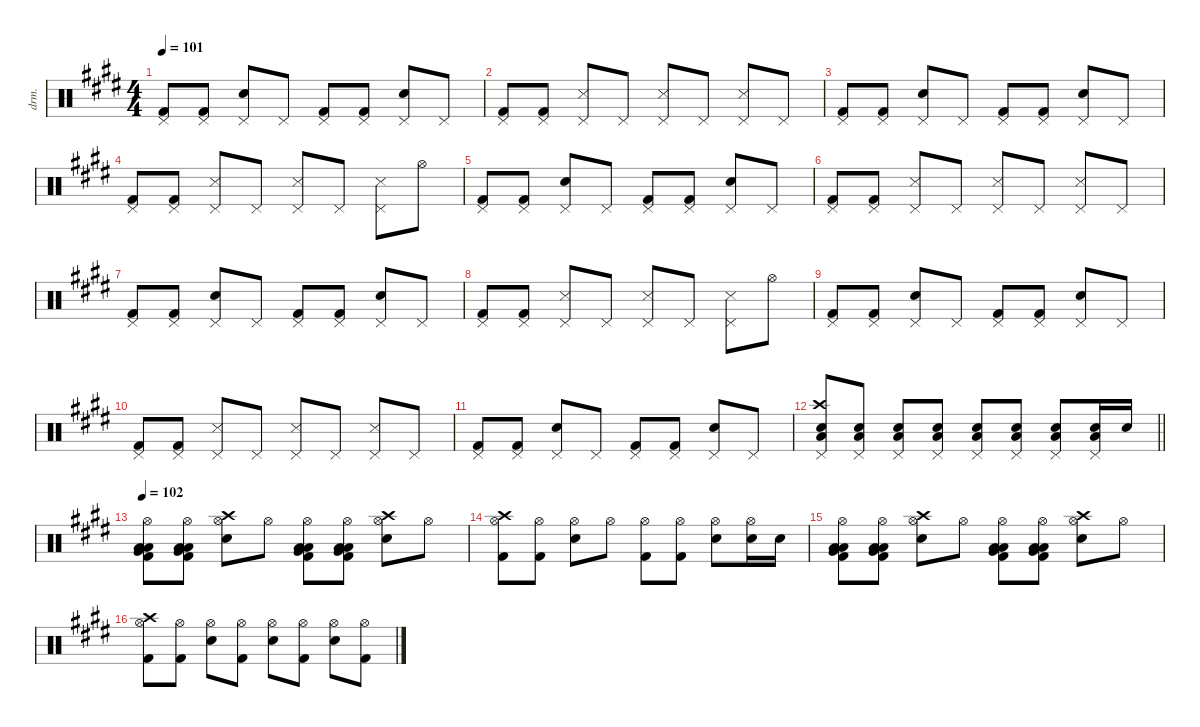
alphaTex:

\defaultSystemsLayout 4
\hideDynamics
\bracketExtendMode nobrackets
\otherSystemsTrackNameOrientation horizontal
\track ("Percussion" "drm.") {instrument percussion}
\staff {score}
\articulation defaults
\ts (4 4)
\tempo 101
\clef neutral
\ks c#minor
("Kick (hit) 2"{acc forcenatural} "Pedal Hi-Hat (hit)"{acc forcenatural}).8{dy f beam Up} ("Kick (hit) 2"{acc forcenatural} "Pedal Hi-Hat (hit)"{acc forcenatural}).8{beam Up} ("Snare (hit) 2"{acc forcenatural} "Pedal Hi-Hat (hit)"{acc forcenatural}).8{beam Up} "Pedal Hi-Hat (hit)"{acc forcenatural}.8{beam Up} ("Kick (hit) 2"{acc forcenatural} "Pedal Hi-Hat (hit)"{acc forcenatural}).8{beam Up} ("Kick (hit) 2"{acc forcenatural} "Pedal Hi-Hat (hit)"{acc forcenatural}).8{beam Up} ("Snare (hit) 2"{acc forcenatural} "Pedal Hi-Hat (hit)"{acc forcenatural}).8{beam Up} "Pedal Hi-Hat (hit)"{acc forcenatural}.8{beam Up} |
("Kick (hit) 2"{acc forcenatural} "Pedal Hi-Hat (hit)"{acc forcenatural}).8{beam Up} ("Kick (hit) 2"{acc forcenatural} "Pedal Hi-Hat (hit)"{acc forcenatural}).8{beam Up} ("Metronome (hit)"{acc forcenatural} "Pedal Hi-Hat (hit)"{acc forcenatural}).8{beam Up} "Pedal Hi-Hat (hit)"{acc forcenatural}.8{beam Up} ("Metronome (hit)"{acc forcenatural} "Pedal Hi-Hat (hit)"{acc forcenatural}).8{beam Up} "Pedal Hi-Hat (hit)"{acc forcenatural}.8{beam Up} ("Metronome (hit)"{acc forcenatural} "Pedal Hi-Hat (hit)"{acc forcenatural}).8{beam Up} "Pedal Hi-Hat (hit)"{acc forcenatural}.8{beam Up} |
("Kick (hit) 2"{acc forcenatural} "Pedal Hi-Hat (hit)"{acc forcenatural}).8{beam Up} ("Kick (hit) 2"{acc forcenatural} "Pedal Hi-Hat (hit)"{acc forcenatural}).8{beam Up} ("Snare (hit) 2"{acc forcenatural} "Pedal Hi-Hat (hit)"{acc forcenatural}).8{beam Up} "Pedal Hi-Hat (hit)"{acc forcenatural}.8{beam Up} ("Kick (hit) 2"{acc forcenatural} "Pedal Hi-Hat (hit)"{acc forcenatural}).8{beam Up} ("Kick (hit) 2"{acc forcenatural} "Pedal Hi-Hat (hit)"{acc forcenatural}).8{beam Up} ("Snare (hit) 2"{acc forcenatural} "Pedal Hi-Hat (hit)"{acc forcenatural}).8{beam Up} "Pedal Hi-Hat (hit)"{acc forcenatural}.8{beam Up} |
("Kick (hit) 2"{acc forcenatural} "Pedal Hi-Hat (hit)"{acc forcenatural}).8{beam Up} ("Kick (hit) 2"{acc forcenatural} "Pedal Hi-Hat (hit)"{acc forcenatural}).8{beam Up} ("Metronome (hit)"{acc forcenatural} "Pedal Hi-Hat (hit)"{acc forcenatural}).8{beam Up} "Pedal Hi-Hat (hit)"{acc forcenatural}.8{beam Up} ("Metronome (hit)"{acc forcenatural} "Pedal Hi-Hat (hit)"{acc forcenatural}).8{beam Up} "Pedal Hi-Hat (hit)"{acc forcenatural}.8{beam Up} ("Metronome (hit)"{acc forcenatural} "Pedal Hi-Hat (hit)"{acc forcenatural}).8{beam Down} "Hi-Hat (open)"{acc forcenatural}.8{beam Down} |
("Kick (hit) 2"{acc forcenatural} "Pedal Hi-Hat (hit)"{acc forcenatural}).8{beam Up} ("Kick (hit) 2"{acc forcenatural} "Pedal Hi-Hat (hit)"{acc forcenatural}).8{beam Up} ("Snare (hit) 2"{acc forcenatural} "Pedal Hi-Hat (hit)"{acc forcenatural}).8{beam Up} "Pedal Hi-Hat (hit)"{acc forcenatural}.8{beam Up} ("Kick (hit) 2"{acc forcenatural} "Pedal Hi-Hat (hit)"{acc forcenatural}).8{beam Up} ("Kick (hit) 2"{acc forcenatural} "Pedal Hi-Hat (hit)"{acc forcenatural}).8{beam Up} ("Snare (hit) 2"{acc forcenatural} "Pedal Hi-Hat (hit)"{acc forcenatural}).8{beam Up} "Pedal Hi-Hat (hit)"{acc forcenatural}.8{beam Up} |
("Kick (hit) 2"{acc forcenatural} "Pedal Hi-Hat (hit)"{acc forcenatural}).8{beam Up} ("Kick (hit) 2"{acc forcenatural} "Pedal Hi-Hat (hit)"{acc forcenatural}).8{beam Up} ("Metronome (hit)"{acc forcenatural} "Pedal Hi-Hat (hit)"{acc forcenatural}).8{beam Up} "Pedal Hi-Hat (hit)"{acc forcenatural}.8{beam Up} ("Metronome (hit)"{acc forcenatural} "Pedal Hi-Hat (hit)"{acc forcenatural}).8{beam Up} "Pedal Hi-Hat (hit)"{acc forcenatural}.8{beam Up} ("Metronome (hit)"{acc forcenatural} "Pedal Hi-Hat (hit)"{acc forcenatural}).8{beam Up} "Pedal Hi-Hat (hit)"{acc forcenatural}.8{beam Up} |
("Kick (hit) 2"{acc forcenatural} "Pedal Hi-Hat (hit)"{acc forcenatural}).8{beam Up} ("Kick (hit) 2"{acc forcenatural} "Pedal Hi-Hat (hit)"{acc forcenatural}).8{beam Up} ("Snare (hit) 2"{acc forcenatural} "Pedal Hi-Hat (hit)"{acc forcenatural}).8{beam Up} "Pedal Hi-Hat (hit)"{acc forcenatural}.8{beam Up} ("Kick (hit) 2"{acc forcenatural} "Pedal Hi-Hat (hit)"{acc forcenatural}).8{beam Up} ("Kick (hit) 2"{acc forcenatural} "Pedal Hi-Hat (hit)"{acc forcenatural}).8{beam Up} ("Snare (hit) 2"{acc forcenatural} "Pedal Hi-Hat (hit)"{acc forcenatural}).8{beam Up} "Pedal Hi-Hat (hit)"{acc forcenatural}.8{beam Up} |
("Kick (hit) 2"{acc forcenatural} "Pedal Hi-Hat (hit)"{acc forcenatural}).8{beam Up} ("Kick (hit) 2"{acc forcenatural} "Pedal Hi-Hat (hit)"{acc forcenatural}).8{beam Up} ("Metronome (hit)"{acc forcenatural} "Pedal Hi-Hat (hit)"{acc forcenatural}).8{beam Up} "Pedal Hi-Hat (hit)"{acc forcenatural}.8{beam Up} ("Metronome (hit)"{acc forcenatural} "Pedal Hi-Hat (hit)"{acc forcenatural}).8{beam Up} "Pedal Hi-Hat (hit)"{acc forcenatural}.8{beam Up} ("Metronome (hit)"{acc forcenatural} "Pedal Hi-Hat (hit)"{acc forcenatural}).8{beam Down} "Hi-Hat (open)"{acc forcenatural}.8{beam Down} |
("Kick (hit) 2"{acc forcenatural} "Pedal Hi-Hat (hit)"{acc forcenatural}).8{beam Up} ("Kick (hit) 2"{acc forcenatural} "Pedal Hi-Hat (hit)"{acc forcenatural}).8{beam Up} ("Snare (hit) 2"{acc forcenatural} "Pedal Hi-Hat (hit)"{acc forcenatural}).8{beam Up} "Pedal Hi-Hat (hit)"{acc forcenatural}.8{beam Up} ("Kick (hit) 2"{acc forcenatural} "Pedal Hi-Hat (hit)"{acc forcenatural}).8{beam Up} ("Kick (hit) 2"{acc forcenatural} "Pedal Hi-Hat (hit)"{acc forcenatural}).8{beam Up} ("Snare (hit) 2"{acc forcenatural} "Pedal Hi-Hat (hit)"{acc forcenatural}).8{beam Up} "Pedal Hi-Hat (hit)"{acc forcenatural}.8{beam Up} |
("Kick (hit) 2"{acc forcenatural} "Pedal Hi-Hat (hit)"{acc forcenatural}).8{beam Up} ("Kick (hit) 2"{acc forcenatural} "Pedal Hi-Hat (hit)"{acc forcenatural}).8{beam Up} ("Metronome (hit)"{acc forcenatural} "Pedal Hi-Hat (hit)"{acc forcenatural}).8{beam Up} "Pedal Hi-Hat (hit)"{acc forcenatural}.8{beam Up} ("Metronome (hit)"{acc forcenatural} "Pedal Hi-Hat (hit)"{acc forcenatural}).8{beam Up} "Pedal Hi-Hat (hit)"{acc forcenatural}.8{beam Up} ("Metronome (hit)"{acc forcenatural} "Pedal Hi-Hat (hit)"{acc forcenatural}).8{beam Up} "Pedal Hi-Hat (hit)"{acc forcenatural}.8{beam Up} |
("Kick (hit) 2"{acc forcenatural} "Pedal Hi-Hat (hit)"{acc forcenatural}).8{beam Up} ("Kick (hit) 2"{acc forcenatural} "Pedal Hi-Hat (hit)"{acc forcenatural}).8{beam Up} ("Snare (hit) 2"{acc forcenatural} "Pedal Hi-Hat (hit)"{acc forcenatural}).8{beam Up} "Pedal Hi-Hat (hit)"{acc forcenatural}.8{beam Up} ("Kick (hit) 2"{acc forcenatural} "Pedal Hi-Hat (hit)"{acc forcenatural}).8{beam Up} ("Kick (hit) 2"{acc forcenatural} "Pedal Hi-Hat (hit)"{acc forcenatural}).8{beam Up} ("Snare (hit) 2"{acc forcenatural} "Pedal Hi-Hat (hit)"{acc forcenatural}).8{beam Up} "Pedal Hi-Hat (hit)"{acc forcenatural}.8{beam Up} |
\barLineRight lightlight
("Snare (hit) 2"{acc forcenatural} "Low Tom (hit)"{acc forcenatural} "Crash high (hit)"{acc forcenatural} "Pedal Hi-Hat (hit)"{acc forcenatural}).8{dy mp beam Up} ("Snare (hit) 2"{acc forcenatural} "Low Tom (hit)"{acc forcenatural} "Pedal Hi-Hat (hit)"{acc forcenatural}).8{beam Up} ("Snare (hit) 2"{acc forcenatural} "Low Tom (hit)"{acc forcenatural} "Pedal Hi-Hat (hit)"{acc forcenatural}).8{dy mf beam Up} ("Snare (hit) 2"{acc forcenatural} "Low Tom (hit)"{acc forcenatural} "Pedal Hi-Hat (hit)"{acc forcenatural}).8{beam Up} ("Snare (hit) 2"{acc forcenatural} "Low Tom (hit)"{acc forcenatural} "Pedal Hi-Hat (hit)"{acc forcenatural}).8{dy f beam Up} ("Snare (hit) 2"{acc forcenatural} "Low Tom (hit)"{acc forcenatural} "Pedal Hi-Hat (hit)"{acc forcenatural}).8{beam Up} ("Snare (hit) 2"{acc forcenatural} "Low Tom (hit)"{acc forcenatural} "Pedal Hi-Hat (hit)"{acc forcenatural}).8{beam Up} ("Snare (hit) 2"{acc forcenatural} "Low Tom (hit)"{acc forcenatural} "Pedal Hi-Hat (hit)"{acc forcenatural}).16{beam Up} "Snare (hit) 2"{acc forcenatural}.16{beam Up} |
\tempo 102
("Kick (hit) 2"{acc forcenatural} "Hi-Hat (open)"{acc forcenatural} "Low Tom (hit)"{acc forcenatural} "Very Low Tom (hit)"{acc forcenatural} "Low Floor Tom (hit)"{acc forcenatural}).8{beam Down} ("Kick (hit) 2"{acc forcenatural} "Hi-Hat (open)"{acc forcenatural} "Low Tom (hit)"{acc forcenatural} "Very Low Tom (hit)"{acc forcenatural} "Low Floor Tom (hit)"{acc forcenatural}).8{beam Down} ("Snare (hit) 2"{acc forcenatural} "Hi-Hat (open)"{acc forcenatural} "Crash high (hit)"{acc forcenatural}).8{beam Down} "Hi-Hat (open)"{acc forcenatural}.8{beam Down} ("Kick (hit) 2"{acc forcenatural} "Hi-Hat (open)"{acc forcenatural} "Low Tom (hit)"{acc forcenatural} "Very Low Tom (hit)"{acc forcenatural} "Low Floor Tom (hit)"{acc forcenatural}).8{beam Down} ("Kick (hit) 2"{acc forcenatural} "Hi-Hat (open)"{acc forcenatural} "Low Tom (hit)"{acc forcenatural} "Very Low Tom (hit)"{acc forcenatural} "Low Floor Tom (hit)"{acc forcenatural}).8{beam Down} ("Snare (hit) 2"{acc forcenatural} "Hi-Hat (open)"{acc forcenatural} "Crash high (hit)"{acc forcenatural}).8{beam Down} "Hi-Hat (open)"{acc forcenatural}.8{beam Down} |
("Kick (hit) 2"{acc forcenatural} "Hi-Hat (open)"{acc forcenatural} "Crash high (hit)"{acc forcenatural}).8{beam Down} ("Kick (hit) 2"{acc forcenatural} "Hi-Hat (open)"{acc forcenatural}).8{beam Down} ("Snare (hit) 2"{acc forcenatural} "Hi-Hat (open)"{acc forcenatural}).8{beam Down} "Hi-Hat (open)"{acc forcenatural}.8{beam Down} ("Kick (hit) 2"{acc forcenatural} "Hi-Hat (open)"{acc forcenatural}).8{beam Down} ("Kick (hit) 2"{acc forcenatural} "Hi-Hat (open)"{acc forcenatural}).8{beam Down} ("Snare (hit) 2"{acc forcenatural} "Hi-Hat (open)"{acc forcenatural}).8{beam Down} ("Snare (hit) 2"{acc forcenatural} "Hi-Hat (open)"{acc forcenatural}).16{beam Down} "Snare (hit) 2"{acc forcenatural}.16{beam Down} |
("Kick (hit) 2"{acc forcenatural} "Hi-Hat (open)"{acc forcenatural} "Low Tom (hit)"{acc forcenatural} "Very Low Tom (hit)"{acc forcenatural} "Low Floor Tom (hit)"{acc forcenatural}).8{beam Down} ("Kick (hit) 2"{acc forcenatural} "Hi-Hat (open)"{acc forcenatural} "Low Tom (hit)"{acc forcenatural} "Very Low Tom (hit)"{acc forcenatural} "Low Floor Tom (hit)"{acc forcenatural}).8{beam Down} ("Snare (hit) 2"{acc forcenatural} "Hi-Hat (open)"{acc forcenatural} "Crash high (hit)"{acc forcenatural}).8{beam Down} "Hi-Hat (open)"{acc forcenatural}.8{beam Down} ("Kick (hit) 2"{acc forcenatural} "Hi-Hat (open)"{acc forcenatural} "Low Tom (hit)"{acc forcenatural} "Very Low Tom (hit)"{acc forcenatural} "Low Floor Tom (hit)"{acc forcenatural}).8{beam Down} ("Kick (hit) 2"{acc forcenatural} "Hi-Hat (open)"{acc forcenatural} "Low Tom (hit)"{acc forcenatural} "Very Low Tom (hit)"{acc forcenatural} "Low Floor Tom (hit)"{acc forcenatural}).8{beam Down} ("Snare (hit) 2"{acc forcenatural} "Hi-Hat (open)"{acc forcenatural} "Crash high (hit)"{acc forcenatural}).8{beam Down} "Hi-Hat (open)"{acc forcenatural}.8{beam Down} |
("Kick (hit) 2"{acc forcenatural} "Hi-Hat (open)"{acc forcenatural} "Crash high (hit)"{acc forcenatural}).8{beam Down} ("Kick (hit) 2"{acc forcenatural} "Hi-Hat (open)"{acc forcenatural}).8{beam Down} ("Snare (hit) 2"{acc forcenatural} "Hi-Hat (open)"{acc forcenatural}).8{beam Down} ("Kick (hit) 2"{acc forcenatural} "Hi-Hat (open)"{acc forcenatural}).8{beam Down} ("Snare (hit) 2"{acc forcenatural} "Hi-Hat (open)"{acc forcenatural}).8{beam Down} ("Kick (hit) 2"{acc forcenatural} "Hi-Hat (open)"{acc forcenatural}).8{beam Down} ("Snare (hit) 2"{acc forcenatural} "Hi-Hat (open)"{acc forcenatural}).8{beam Down} ("Kick (hit) 2"{acc forcenatural} "Hi-Hat (open)"{acc forcenatural}).8{beam Down}
